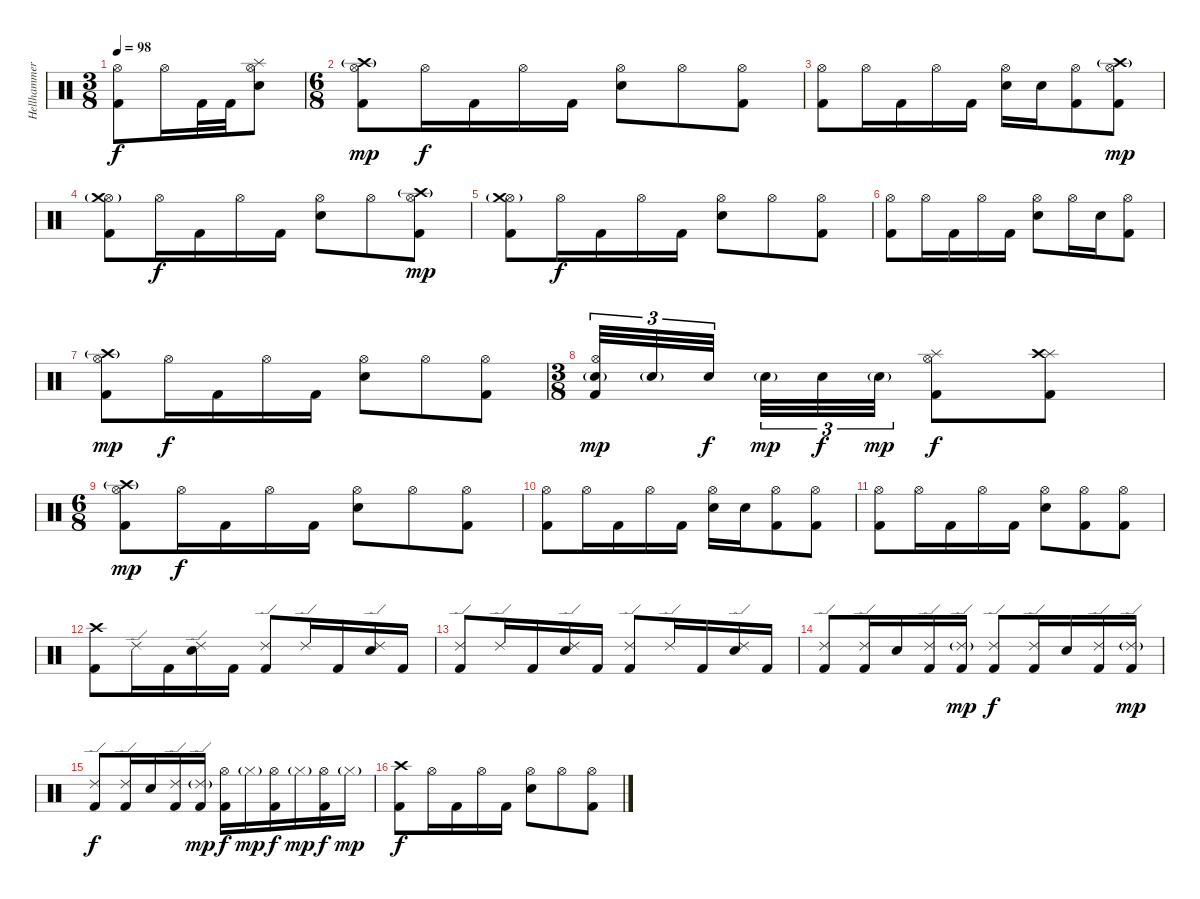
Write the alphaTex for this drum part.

\track ("Hellhammer (Drums)" "Hellhammer") {instrument percussion}
\staff {score}
\articulation defaults
\ts (3 8)
\tempo 98
\clef neutral
\ks c
("Kick (hit) 2" "Hi-Hat (open)").8{dy f} "Hi-Hat (open)".16 "Kick (hit) 2".32 "Kick (hit) 2".32 ("Electric Snare (hit)" "Hi-Hat (open)" "Splash (hit)").8 |
\ts (6 8)
("Kick (hit) 2" "Hi-Hat (open)" "Crash high (hit)"{g}).8{dy mp} "Hi-Hat (open)".16{dy f} "Kick (hit) 2".16 "Hi-Hat (open)".16 "Kick (hit) 2".16 ("Electric Snare (hit)" "Hi-Hat (open)").8 "Hi-Hat (open)".8 ("Kick (hit) 2" "Hi-Hat (open)").8 |
("Kick (hit) 2" "Hi-Hat (open)").8 "Hi-Hat (open)".16 "Kick (hit) 2".16 "Hi-Hat (open)".16 "Kick (hit) 2".16 ("Electric Snare (hit)" "Hi-Hat (open)").16 "Electric Snare (hit)".16 ("Kick (hit) 2" "Hi-Hat (open)").8 ("Kick (hit) 2" "Hi-Hat (open)" "Crash high (hit)"{g}).8{dy mp} |
("Kick (hit) 2" "Hi-Hat (open)" "Crash medium (hit)"{g}).8 "Hi-Hat (open)".16{dy f} "Kick (hit) 2".16 "Hi-Hat (open)".16 "Kick (hit) 2".16 ("Electric Snare (hit)" "Hi-Hat (open)").8 "Hi-Hat (open)".8 ("Kick (hit) 2" "Hi-Hat (open)" "Crash high (hit)"{g}).8{dy mp} |
("Kick (hit) 2" "Hi-Hat (open)" "Crash medium (hit)"{g}).8 "Hi-Hat (open)".16{dy f} "Kick (hit) 2".16 "Hi-Hat (open)".16 "Kick (hit) 2".16 ("Electric Snare (hit)" "Hi-Hat (open)").8 "Hi-Hat (open)".8 ("Kick (hit) 2" "Hi-Hat (open)").8 |
("Kick (hit) 2" "Hi-Hat (open)").8 "Hi-Hat (open)".16 "Kick (hit) 2".16 "Hi-Hat (open)".16 "Kick (hit) 2".16 ("Electric Snare (hit)" "Hi-Hat (open)").8 "Hi-Hat (open)".16 "Electric Snare (hit)".16 ("Kick (hit) 2" "Hi-Hat (open)").8 |
("Kick (hit) 2" "Hi-Hat (open)" "Crash high (hit)"{g}).8{dy mp} "Hi-Hat (open)".16{dy f} "Kick (hit) 2".16 "Hi-Hat (open)".16 "Kick (hit) 2".16 ("Electric Snare (hit)" "Hi-Hat (open)").8 "Hi-Hat (open)".8 ("Kick (hit) 2" "Hi-Hat (open)").8 |
\ts (3 8)
("Kick (hit) 2" "Electric Snare (hit)"{g} "Hi-Hat (open)").32{tu (3 2) dy mp} "Electric Snare (hit)"{g}.32{tu (3 2)} "Electric Snare (hit)".32{tu (3 2) dy f} "Electric Snare (hit)"{g}.32{tu (3 2) dy mp} "Electric Snare (hit)".32{tu (3 2) dy f} "Electric Snare (hit)"{g}.32{tu (3 2) dy mp} ("Kick (hit) 2" "Hi-Hat (open)" "Splash (hit)").8{dy f} ("Kick (hit) 2" "Splash (hit)" "Crash high (hit)").8 |
\ts (6 8)
("Kick (hit) 2" "Hi-Hat (open)" "Crash high (hit)"{g}).8{dy mp} "Hi-Hat (open)".16{dy f} "Kick (hit) 2".16 "Hi-Hat (open)".16 "Kick (hit) 2".16 ("Electric Snare (hit)" "Hi-Hat (open)").8 "Hi-Hat (open)".8 ("Kick (hit) 2" "Hi-Hat (open)").8 |
("Kick (hit) 2" "Hi-Hat (open)").8 "Hi-Hat (open)".16 "Kick (hit) 2".16 "Hi-Hat (open)".16 "Kick (hit) 2".16 ("Electric Snare (hit)" "Hi-Hat (open)").16 "Electric Snare (hit)".16 ("Kick (hit) 2" "Hi-Hat (open)").8 ("Kick (hit) 2" "Hi-Hat (open)").8 |
("Kick (hit) 2" "Hi-Hat (open)").8 "Hi-Hat (open)".16 "Kick (hit) 2".16 "Hi-Hat (open)".16 "Kick (hit) 2".16 ("Electric Snare (hit)" "Hi-Hat (open)").8 ("Kick (hit) 2" "Hi-Hat (open)").8 ("Kick (hit) 2" "Hi-Hat (open)").8 |
("Kick (hit) 2" "Crash high (hit)").8 "Ride (edge) 2".16 "Kick (hit) 2".16 ("Electric Snare (hit)" "Ride (edge) 2").16 "Kick (hit) 2".16 ("Kick (hit) 2" "Ride (edge) 2").8 "Ride (edge) 2".16 "Kick (hit) 2".16 ("Electric Snare (hit)" "Ride (edge) 2").16 "Kick (hit) 2".16 |
("Kick (hit) 2" "Ride (edge) 2").8 "Ride (edge) 2".16 "Kick (hit) 2".16 ("Electric Snare (hit)" "Ride (edge) 2").16 "Kick (hit) 2".16 ("Kick (hit) 2" "Ride (edge) 2").8 "Ride (edge) 2".16 "Kick (hit) 2".16 ("Electric Snare (hit)" "Ride (edge) 2").16 "Kick (hit) 2".16 |
("Kick (hit) 2" "Ride (edge) 2").8 ("Kick (hit) 2" "Ride (edge) 2").16 "Electric Snare (hit)".16 ("Kick (hit) 2" "Ride (edge) 2").16 ("Kick (hit) 2" "Ride (edge) 2"{g}).16{dy mp} ("Kick (hit) 2" "Ride (edge) 2").8{dy f} ("Kick (hit) 2" "Ride (edge) 2").16 "Electric Snare (hit)".16 ("Kick (hit) 2" "Ride (edge) 2").16 ("Kick (hit) 2" "Ride (edge) 2"{g}).16{dy mp} |
("Kick (hit) 2" "Ride (edge) 2").8{dy f} ("Kick (hit) 2" "Ride (edge) 2").16 "Electric Snare (hit)".16 ("Kick (hit) 2" "Ride (edge) 2").16 ("Kick (hit) 2" "Ride (edge) 2"{g}).16{dy mp} ("Kick (hit) 2" "Hi-Hat (open)").16{dy f} "Hi-Hat (closed)"{g}.16{dy mp} ("Kick (hit) 2" "Hi-Hat (open)").16{dy f} "Hi-Hat (closed)"{g}.16{dy mp} ("Kick (hit) 2" "Hi-Hat (open)").16{dy f} "Hi-Hat (closed)"{g}.16{dy mp} |
("Kick (hit) 2" "Crash high (hit)").8{dy f} "Hi-Hat (open)".16 "Kick (hit) 2".16 "Hi-Hat (open)".16 "Kick (hit) 2".16 ("Electric Snare (hit)" "Hi-Hat (open)").8 "Hi-Hat (open)".8 ("Kick (hit) 2" "Hi-Hat (open)").8
